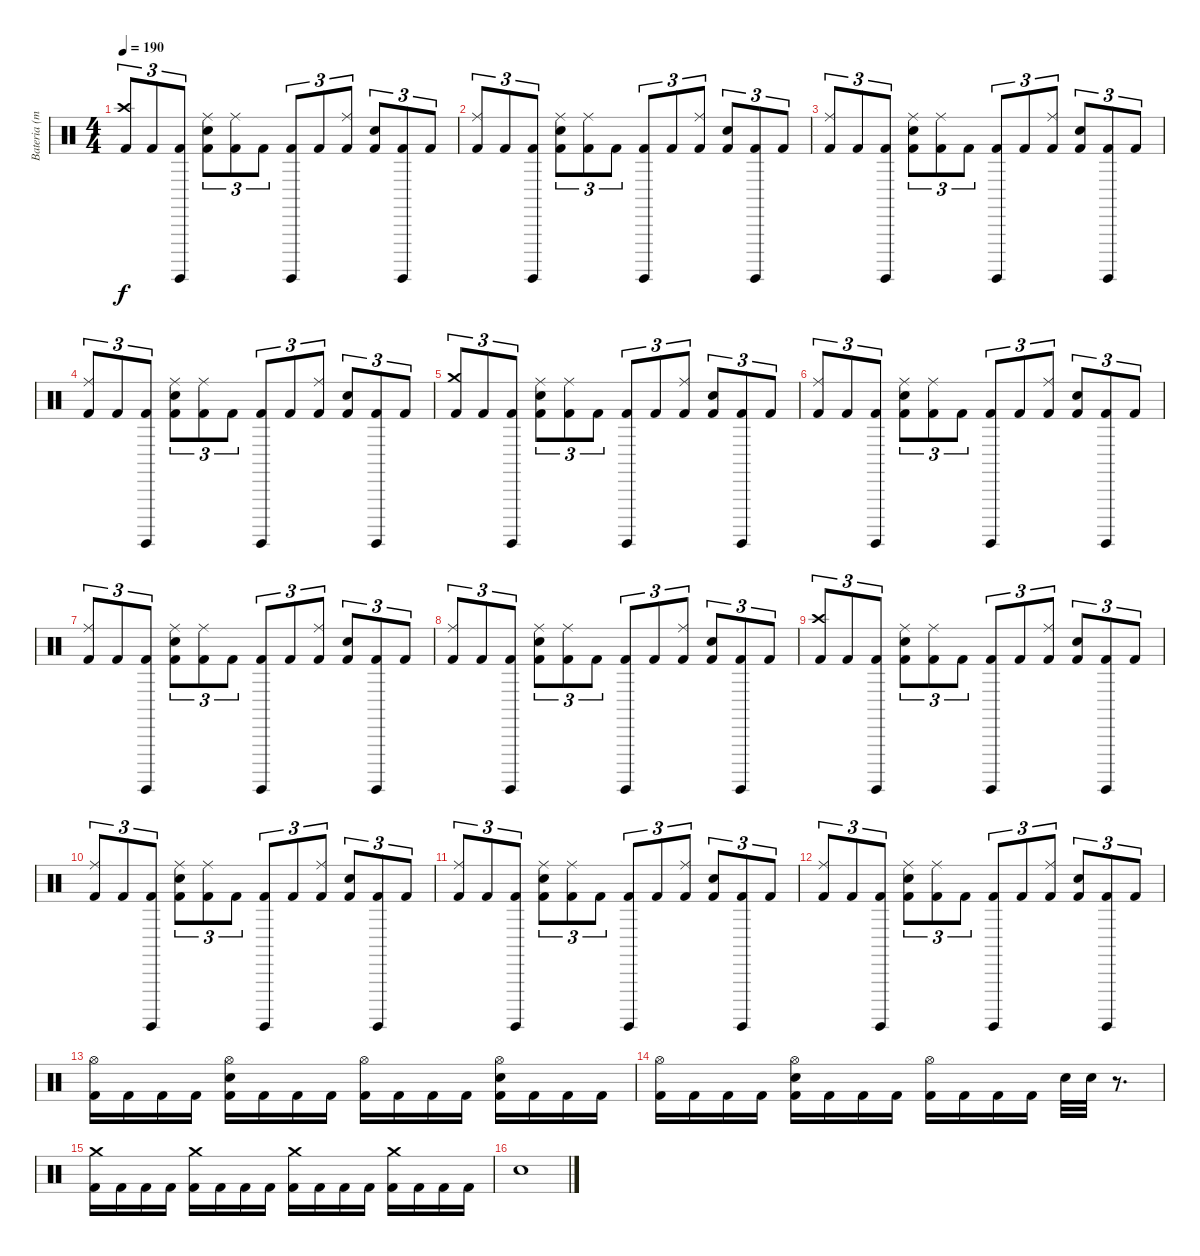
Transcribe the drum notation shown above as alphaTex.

\track ("Bateria (mestre Aquiles Priester)" "Bateria (m") {instrument percussion}
\staff {score}
\articulation defaults
\ts (4 4)
\tempo 190
\clef neutral
\ks c
("Kick (hit) 2" "Crash high (hit)").8{tu (3 2) dy f} "Kick (hit) 2".8{tu (3 2)} ("Kick (hit) 2" "Surdo (hit)").8{tu (3 2)} ("Kick (hit) 2" "Electric Snare (hit)" "Ride (middle)").8{tu (3 2)} ("Kick (hit) 2" "Ride (middle)").8{tu (3 2)} "Kick (hit) 2".8{tu (3 2)} ("Kick (hit) 2" "Surdo (hit)").8{tu (3 2)} "Kick (hit) 2".8{tu (3 2)} ("Kick (hit) 2" "Ride (middle)").8{tu (3 2)} ("Kick (hit) 2" "Electric Snare (hit)").8{tu (3 2)} ("Kick (hit) 2" "Surdo (hit)").8{tu (3 2)} "Kick (hit) 2".8{tu (3 2)} |
("Kick (hit) 2" "Ride (middle)").8{tu (3 2)} "Kick (hit) 2".8{tu (3 2)} ("Kick (hit) 2" "Surdo (hit)").8{tu (3 2)} ("Kick (hit) 2" "Electric Snare (hit)" "Ride (middle)").8{tu (3 2)} ("Kick (hit) 2" "Ride (middle)").8{tu (3 2)} "Kick (hit) 2".8{tu (3 2)} ("Kick (hit) 2" "Surdo (hit)").8{tu (3 2)} "Kick (hit) 2".8{tu (3 2)} ("Kick (hit) 2" "Ride (middle)").8{tu (3 2)} ("Kick (hit) 2" "Electric Snare (hit)").8{tu (3 2)} ("Kick (hit) 2" "Surdo (hit)").8{tu (3 2)} "Kick (hit) 2".8{tu (3 2)} |
("Kick (hit) 2" "Ride (middle)").8{tu (3 2)} "Kick (hit) 2".8{tu (3 2)} ("Kick (hit) 2" "Surdo (hit)").8{tu (3 2)} ("Kick (hit) 2" "Electric Snare (hit)" "Ride (middle)").8{tu (3 2)} ("Kick (hit) 2" "Ride (middle)").8{tu (3 2)} "Kick (hit) 2".8{tu (3 2)} ("Kick (hit) 2" "Surdo (hit)").8{tu (3 2)} "Kick (hit) 2".8{tu (3 2)} ("Kick (hit) 2" "Ride (middle)").8{tu (3 2)} ("Kick (hit) 2" "Electric Snare (hit)").8{tu (3 2)} ("Kick (hit) 2" "Surdo (hit)").8{tu (3 2)} "Kick (hit) 2".8{tu (3 2)} |
("Kick (hit) 2" "Ride (middle)").8{tu (3 2)} "Kick (hit) 2".8{tu (3 2)} ("Kick (hit) 2" "Surdo (hit)").8{tu (3 2)} ("Kick (hit) 2" "Electric Snare (hit)" "Ride (middle)").8{tu (3 2)} ("Kick (hit) 2" "Ride (middle)").8{tu (3 2)} "Kick (hit) 2".8{tu (3 2)} ("Kick (hit) 2" "Surdo (hit)").8{tu (3 2)} "Kick (hit) 2".8{tu (3 2)} ("Kick (hit) 2" "Ride (middle)").8{tu (3 2)} ("Kick (hit) 2" "Electric Snare (hit)").8{tu (3 2)} ("Kick (hit) 2" "Surdo (hit)").8{tu (3 2)} "Kick (hit) 2".8{tu (3 2)} |
("Kick (hit) 2" "Crash medium (hit)").8{tu (3 2)} "Kick (hit) 2".8{tu (3 2)} ("Kick (hit) 2" "Surdo (hit)").8{tu (3 2)} ("Kick (hit) 2" "Electric Snare (hit)" "Ride (middle)").8{tu (3 2)} ("Kick (hit) 2" "Ride (middle)").8{tu (3 2)} "Kick (hit) 2".8{tu (3 2)} ("Kick (hit) 2" "Surdo (hit)").8{tu (3 2)} "Kick (hit) 2".8{tu (3 2)} ("Kick (hit) 2" "Ride (middle)").8{tu (3 2)} ("Kick (hit) 2" "Electric Snare (hit)").8{tu (3 2)} ("Kick (hit) 2" "Surdo (hit)").8{tu (3 2)} "Kick (hit) 2".8{tu (3 2)} |
("Kick (hit) 2" "Ride (middle)").8{tu (3 2)} "Kick (hit) 2".8{tu (3 2)} ("Kick (hit) 2" "Surdo (hit)").8{tu (3 2)} ("Kick (hit) 2" "Electric Snare (hit)" "Ride (middle)").8{tu (3 2)} ("Kick (hit) 2" "Ride (middle)").8{tu (3 2)} "Kick (hit) 2".8{tu (3 2)} ("Kick (hit) 2" "Surdo (hit)").8{tu (3 2)} "Kick (hit) 2".8{tu (3 2)} ("Kick (hit) 2" "Ride (middle)").8{tu (3 2)} ("Kick (hit) 2" "Electric Snare (hit)").8{tu (3 2)} ("Kick (hit) 2" "Surdo (hit)").8{tu (3 2)} "Kick (hit) 2".8{tu (3 2)} |
("Kick (hit) 2" "Ride (middle)").8{tu (3 2)} "Kick (hit) 2".8{tu (3 2)} ("Kick (hit) 2" "Surdo (hit)").8{tu (3 2)} ("Kick (hit) 2" "Electric Snare (hit)" "Ride (middle)").8{tu (3 2)} ("Kick (hit) 2" "Ride (middle)").8{tu (3 2)} "Kick (hit) 2".8{tu (3 2)} ("Kick (hit) 2" "Surdo (hit)").8{tu (3 2)} "Kick (hit) 2".8{tu (3 2)} ("Kick (hit) 2" "Ride (middle)").8{tu (3 2)} ("Kick (hit) 2" "Electric Snare (hit)").8{tu (3 2)} ("Kick (hit) 2" "Surdo (hit)").8{tu (3 2)} "Kick (hit) 2".8{tu (3 2)} |
("Kick (hit) 2" "Ride (middle)").8{tu (3 2)} "Kick (hit) 2".8{tu (3 2)} ("Kick (hit) 2" "Surdo (hit)").8{tu (3 2)} ("Kick (hit) 2" "Electric Snare (hit)" "Ride (middle)").8{tu (3 2)} ("Kick (hit) 2" "Ride (middle)").8{tu (3 2)} "Kick (hit) 2".8{tu (3 2)} ("Kick (hit) 2" "Surdo (hit)").8{tu (3 2)} "Kick (hit) 2".8{tu (3 2)} ("Kick (hit) 2" "Ride (middle)").8{tu (3 2)} ("Kick (hit) 2" "Electric Snare (hit)").8{tu (3 2)} ("Kick (hit) 2" "Surdo (hit)").8{tu (3 2)} "Kick (hit) 2".8{tu (3 2)} |
("Kick (hit) 2" "Crash high (hit)").8{tu (3 2)} "Kick (hit) 2".8{tu (3 2)} ("Kick (hit) 2" "Surdo (hit)").8{tu (3 2)} ("Kick (hit) 2" "Electric Snare (hit)" "Ride (middle)").8{tu (3 2)} ("Kick (hit) 2" "Ride (middle)").8{tu (3 2)} "Kick (hit) 2".8{tu (3 2)} ("Kick (hit) 2" "Surdo (hit)").8{tu (3 2)} "Kick (hit) 2".8{tu (3 2)} ("Kick (hit) 2" "Ride (middle)").8{tu (3 2)} ("Kick (hit) 2" "Electric Snare (hit)").8{tu (3 2)} ("Kick (hit) 2" "Surdo (hit)").8{tu (3 2)} "Kick (hit) 2".8{tu (3 2)} |
("Kick (hit) 2" "Ride (middle)").8{tu (3 2)} "Kick (hit) 2".8{tu (3 2)} ("Kick (hit) 2" "Surdo (hit)").8{tu (3 2)} ("Kick (hit) 2" "Electric Snare (hit)" "Ride (middle)").8{tu (3 2)} ("Kick (hit) 2" "Ride (middle)").8{tu (3 2)} "Kick (hit) 2".8{tu (3 2)} ("Kick (hit) 2" "Surdo (hit)").8{tu (3 2)} "Kick (hit) 2".8{tu (3 2)} ("Kick (hit) 2" "Ride (middle)").8{tu (3 2)} ("Kick (hit) 2" "Electric Snare (hit)").8{tu (3 2)} ("Kick (hit) 2" "Surdo (hit)").8{tu (3 2)} "Kick (hit) 2".8{tu (3 2)} |
("Kick (hit) 2" "Ride (middle)").8{tu (3 2)} "Kick (hit) 2".8{tu (3 2)} ("Kick (hit) 2" "Surdo (hit)").8{tu (3 2)} ("Kick (hit) 2" "Electric Snare (hit)" "Ride (middle)").8{tu (3 2)} ("Kick (hit) 2" "Ride (middle)").8{tu (3 2)} "Kick (hit) 2".8{tu (3 2)} ("Kick (hit) 2" "Surdo (hit)").8{tu (3 2)} "Kick (hit) 2".8{tu (3 2)} ("Kick (hit) 2" "Ride (middle)").8{tu (3 2)} ("Kick (hit) 2" "Electric Snare (hit)").8{tu (3 2)} ("Kick (hit) 2" "Surdo (hit)").8{tu (3 2)} "Kick (hit) 2".8{tu (3 2)} |
("Kick (hit) 2" "Ride (middle)").8{tu (3 2)} "Kick (hit) 2".8{tu (3 2)} ("Kick (hit) 2" "Surdo (hit)").8{tu (3 2)} ("Kick (hit) 2" "Electric Snare (hit)" "Ride (middle)").8{tu (3 2)} ("Kick (hit) 2" "Ride (middle)").8{tu (3 2)} "Kick (hit) 2".8{tu (3 2)} ("Kick (hit) 2" "Surdo (hit)").8{tu (3 2)} "Kick (hit) 2".8{tu (3 2)} ("Kick (hit) 2" "Ride (middle)").8{tu (3 2)} ("Kick (hit) 2" "Electric Snare (hit)").8{tu (3 2)} ("Kick (hit) 2" "Surdo (hit)").8{tu (3 2)} "Kick (hit) 2".8{tu (3 2)} |
("Kick (hit) 2" "Hi-Hat (open)").16 "Kick (hit) 2".16 "Kick (hit) 2".16 "Kick (hit) 2".16 ("Kick (hit) 2" "Electric Snare (hit)" "Hi-Hat (open)").16 "Kick (hit) 2".16 "Kick (hit) 2".16 "Kick (hit) 2".16 ("Kick (hit) 2" "Hi-Hat (open)").16 "Kick (hit) 2".16 "Kick (hit) 2".16 "Kick (hit) 2".16 ("Kick (hit) 2" "Electric Snare (hit)" "Hi-Hat (open)").16 "Kick (hit) 2".16 "Kick (hit) 2".16 "Kick (hit) 2".16 |
("Kick (hit) 2" "Hi-Hat (open)").16 "Kick (hit) 2".16 "Kick (hit) 2".16 "Kick (hit) 2".16 ("Kick (hit) 2" "Electric Snare (hit)" "Hi-Hat (open)").16 "Kick (hit) 2".16 "Kick (hit) 2".16 "Kick (hit) 2".16 ("Kick (hit) 2" "Hi-Hat (open)").16 "Kick (hit) 2".16 "Kick (hit) 2".16 "Kick (hit) 2".16 "Electric Snare (hit)".32 "Electric Snare (hit)".32 r.8{d} |
("Kick (hit) 2" "Crash medium (hit)").16 "Kick (hit) 2".16 "Kick (hit) 2".16 "Kick (hit) 2".16 ("Kick (hit) 2" "Crash medium (hit)").16 "Kick (hit) 2".16 "Kick (hit) 2".16 "Kick (hit) 2".16 ("Kick (hit) 2" "Crash medium (hit)").16 "Kick (hit) 2".16 "Kick (hit) 2".16 "Kick (hit) 2".16 ("Kick (hit) 2" "Crash medium (hit)").16 "Kick (hit) 2".16 "Kick (hit) 2".16 "Kick (hit) 2".16 |
"Electric Snare (hit)".1
